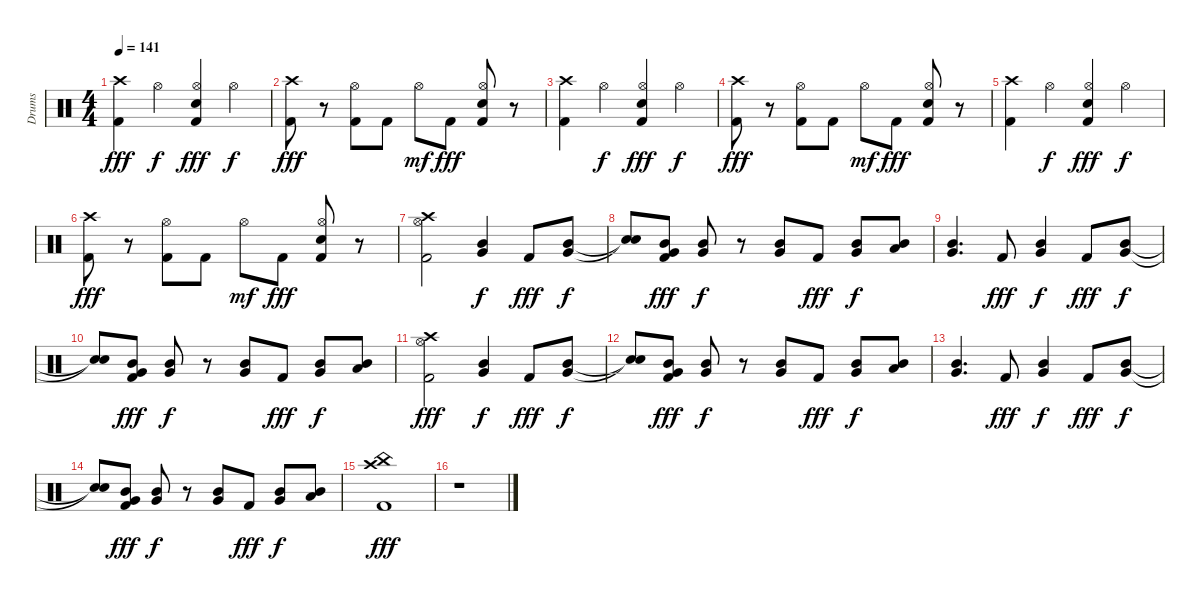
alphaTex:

\track ("Drums" "Drums") {instrument percussion}
\staff {score}
\articulation defaults
\ts (4 4)
\tempo 141
\clef neutral
\ks c
("Crash high (hit)" "Kick (hit) 2").4{dy fff} "Hi-Hat (open)".4{dy f} ("Hi-Hat (open)" "Electric Snare (hit)" "Kick (hit) 2").4{dy fff} "Hi-Hat (open)".4{dy f} |
("Crash high (hit)" "Kick (hit) 2").8{dy fff} r.8 ("Hi-Hat (open)" "Kick (hit) 2").8 "Kick (hit) 2".8 "Hi-Hat (open)".8{dy mf} "Kick (hit) 2".8{dy fff} ("Hi-Hat (open)" "Electric Snare (hit)" "Kick (hit) 2").8 r.8 |
("Crash high (hit)" "Kick (hit) 2").4 "Hi-Hat (open)".4{dy f} ("Hi-Hat (open)" "Electric Snare (hit)" "Kick (hit) 2").4{dy fff} "Hi-Hat (open)".4{dy f} |
("Crash high (hit)" "Kick (hit) 2").8{dy fff} r.8 ("Hi-Hat (open)" "Kick (hit) 2").8 "Kick (hit) 2".8 "Hi-Hat (open)".8{dy mf} "Kick (hit) 2".8{dy fff} ("Hi-Hat (open)" "Electric Snare (hit)" "Kick (hit) 2").8 r.8 |
("Crash high (hit)" "Kick (hit) 2").4 "Hi-Hat (open)".4{dy f} ("Hi-Hat (open)" "Electric Snare (hit)" "Kick (hit) 2").4{dy fff} "Hi-Hat (open)".4{dy f} |
("Crash high (hit)" "Kick (hit) 2").8{dy fff} r.8 ("Hi-Hat (open)" "Kick (hit) 2").8 "Kick (hit) 2".8 "Hi-Hat (open)".8{dy mf} "Kick (hit) 2".8{dy fff} ("Hi-Hat (open)" "Electric Snare (hit)" "Kick (hit) 2").8 r.8 |
("Hi-Hat (open)" "Crash high (hit)" "Kick (hit) 2").2 ("Very Low Tom (hit)" "Mid Tom (hit)").4{dy f} "Kick (hit) 2".8{dy fff} ("Very Low Tom (hit)" "Mid Tom (hit)").8{dy f} |
("Snare (hit)"{t} "Snare (hit)"{t}).8 ("Very Low Tom (hit)" "Mid Tom (hit)" "Kick (hit) 2").8{dy fff} ("Very Low Tom (hit)" "Mid Tom (hit)").8{dy f} r.8 ("Very Low Tom (hit)" "Mid Tom (hit)").8 "Kick (hit) 2".8{dy fff} ("Very Low Tom (hit)" "Mid Tom (hit)").8{dy f} ("Low Tom (hit)" "Mid Tom (hit)").8 |
("Very Low Tom (hit)" "Mid Tom (hit)").4{d} "Kick (hit) 2".8{dy fff} ("Very Low Tom (hit)" "Mid Tom (hit)").4{dy f} "Kick (hit) 2".8{dy fff} ("Very Low Tom (hit)" "Mid Tom (hit)").8{dy f} |
("Snare (hit)"{t} "Snare (hit)"{t}).8 ("Very Low Tom (hit)" "Mid Tom (hit)" "Kick (hit) 2").8{dy fff} ("Very Low Tom (hit)" "Mid Tom (hit)").8{dy f} r.8 ("Very Low Tom (hit)" "Mid Tom (hit)").8 "Kick (hit) 2".8{dy fff} ("Very Low Tom (hit)" "Mid Tom (hit)").8{dy f} ("Low Tom (hit)" "Mid Tom (hit)").8 |
("Hi-Hat (open)" "Crash high (hit)" "Kick (hit) 2").2{dy fff} ("Very Low Tom (hit)" "Mid Tom (hit)").4{dy f} "Kick (hit) 2".8{dy fff} ("Very Low Tom (hit)" "Mid Tom (hit)").8{dy f} |
("Snare (hit)"{t} "Snare (hit)"{t}).8 ("Very Low Tom (hit)" "Mid Tom (hit)" "Kick (hit) 2").8{dy fff} ("Very Low Tom (hit)" "Mid Tom (hit)").8{dy f} r.8 ("Very Low Tom (hit)" "Mid Tom (hit)").8 "Kick (hit) 2".8{dy fff} ("Very Low Tom (hit)" "Mid Tom (hit)").8{dy f} ("Low Tom (hit)" "Mid Tom (hit)").8 |
("Very Low Tom (hit)" "Mid Tom (hit)").4{d} "Kick (hit) 2".8{dy fff} ("Very Low Tom (hit)" "Mid Tom (hit)").4{dy f} "Kick (hit) 2".8{dy fff} ("Very Low Tom (hit)" "Mid Tom (hit)").8{dy f} |
("Snare (hit)"{t} "Snare (hit)"{t}).8 ("Very Low Tom (hit)" "Mid Tom (hit)" "Kick (hit) 2").8{dy fff} ("Very Low Tom (hit)" "Mid Tom (hit)").8{dy f} r.8 ("Very Low Tom (hit)" "Mid Tom (hit)").8 "Kick (hit) 2".8{dy fff} ("Very Low Tom (hit)" "Mid Tom (hit)").8{dy f} ("Low Tom (hit)" "Mid Tom (hit)").8 |
("Crash high (hit)" "China (hit)" "Kick (hit) 2").1{dy fff} |
r.1
